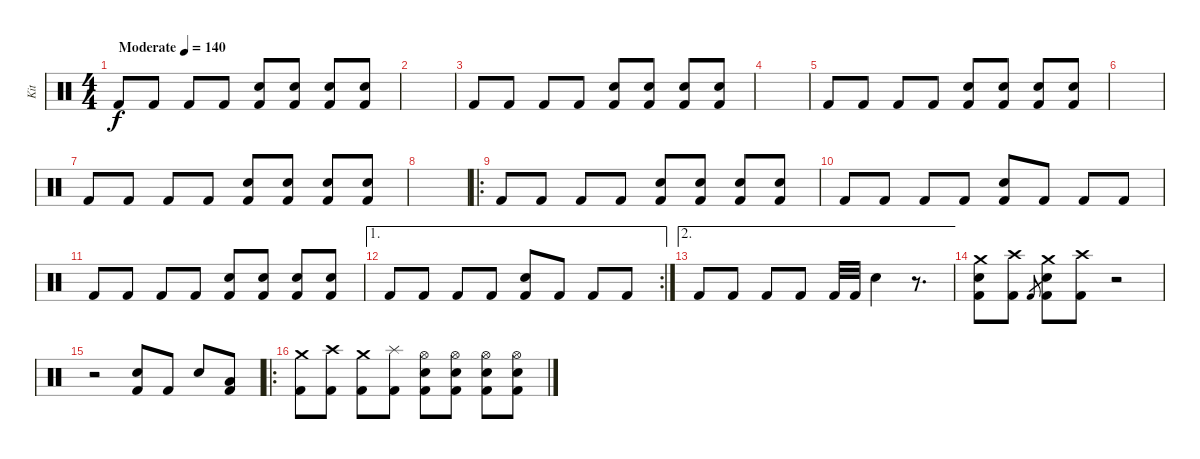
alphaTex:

\track ("Kit" "Kit") {instrument percussion}
\staff {score}
\articulation defaults
\ts (4 4)
\tempo (140 "Moderate")
\clef neutral
\ks c "Kick (hit) 2".8{dy f} "Kick (hit) 2".8 "Kick (hit) 2".8 "Kick (hit) 2".8
("Electric Snare (hit)" "Kick (hit) 2").8 ("Electric Snare (hit)" "Kick (hit) 2").8 ("Electric Snare (hit)" "Kick (hit) 2").8 ("Electric Snare (hit)" "Kick (hit) 2").8 |
|
"Kick (hit) 2".8 "Kick (hit) 2".8 "Kick (hit) 2".8 "Kick (hit) 2".8 ("Electric Snare (hit)" "Kick (hit) 2").8 ("Electric Snare (hit)" "Kick (hit) 2").8 ("Electric Snare (hit)" "Kick (hit) 2").8 ("Electric Snare (hit)" "Kick (hit) 2").8 |
|
"Kick (hit) 2".8 "Kick (hit) 2".8 "Kick (hit) 2".8 "Kick (hit) 2".8 ("Electric Snare (hit)" "Kick (hit) 2").8 ("Electric Snare (hit)" "Kick (hit) 2").8 ("Electric Snare (hit)" "Kick (hit) 2").8 ("Electric Snare (hit)" "Kick (hit) 2").8 |
|
"Kick (hit) 2".8 "Kick (hit) 2".8 "Kick (hit) 2".8 "Kick (hit) 2".8 ("Electric Snare (hit)" "Kick (hit) 2").8 ("Electric Snare (hit)" "Kick (hit) 2").8 ("Electric Snare (hit)" "Kick (hit) 2").8 ("Electric Snare (hit)" "Kick (hit) 2").8 |
|
\ro "Kick (hit) 2".8 "Kick (hit) 2".8 "Kick (hit) 2".8 "Kick (hit) 2".8
("Electric Snare (hit)" "Kick (hit) 2").8 ("Electric Snare (hit)" "Kick (hit) 2").8 ("Electric Snare (hit)" "Kick (hit) 2").8 ("Electric Snare (hit)" "Kick (hit) 2").8 |
"Kick (hit) 2".8 "Kick (hit) 2".8 "Kick (hit) 2".8 "Kick (hit) 2".8 ("Electric Snare (hit)" "Kick (hit) 2").8 "Kick (hit) 2".8 "Kick (hit) 2".8 "Kick (hit) 2".8 |
"Kick (hit) 2".8 "Kick (hit) 2".8 "Kick (hit) 2".8 "Kick (hit) 2".8 ("Electric Snare (hit)" "Kick (hit) 2").8 ("Electric Snare (hit)" "Kick (hit) 2").8 ("Electric Snare (hit)" "Kick (hit) 2").8 ("Electric Snare (hit)" "Kick (hit) 2").8 |
\ae 1
\rc 2 "Kick (hit) 2".8 "Kick (hit) 2".8 "Kick (hit) 2".8 "Kick (hit) 2".8
("Electric Snare (hit)" "Kick (hit) 2").8 "Kick (hit) 2".8 "Kick (hit) 2".8 "Kick (hit) 2".8 |
\ae 2 "Kick (hit) 2".8 "Kick (hit) 2".8 "Kick (hit) 2".8 "Kick (hit) 2".8 "Kick (hit) 2".32 "Kick (hit) 2".32 "Electric Snare (hit)".4
r.8{d} |
("Crash medium (hit)" "Electric Snare (hit)" "Kick (hit) 2").8 ("Crash high (hit)" "Kick (hit) 2").8 "Kick (hit) 2".8{gr} ("Crash medium (hit)" "Electric Snare (hit)" "Kick (hit) 2").8 ("Crash high (hit)" "Kick (hit) 2").8 r.2 |
r.2 ("Electric Snare (hit)" "Kick (hit) 2").8{bd 240} "Kick (hit) 2".8 "Electric Snare (hit)".8 ("Low Floor Tom (hit)" "Kick (hit) 2").8 |
\ro
("Crash medium (hit)" "Kick (hit) 2").8 ("Crash high (hit)" "Kick (hit) 2").8 ("Crash medium (hit)" "Kick (hit) 2").8 ("Splash (hit)" "Kick (hit) 2").8 ("Hi-Hat (open)" "Electric Snare (hit)" "Kick (hit) 2").8 ("Hi-Hat (open)" "Electric Snare (hit)" "Kick (hit) 2").8 ("Hi-Hat (open)" "Electric Snare (hit)" "Kick (hit) 2").8 ("Hi-Hat (open)" "Electric Snare (hit)" "Kick (hit) 2").8
